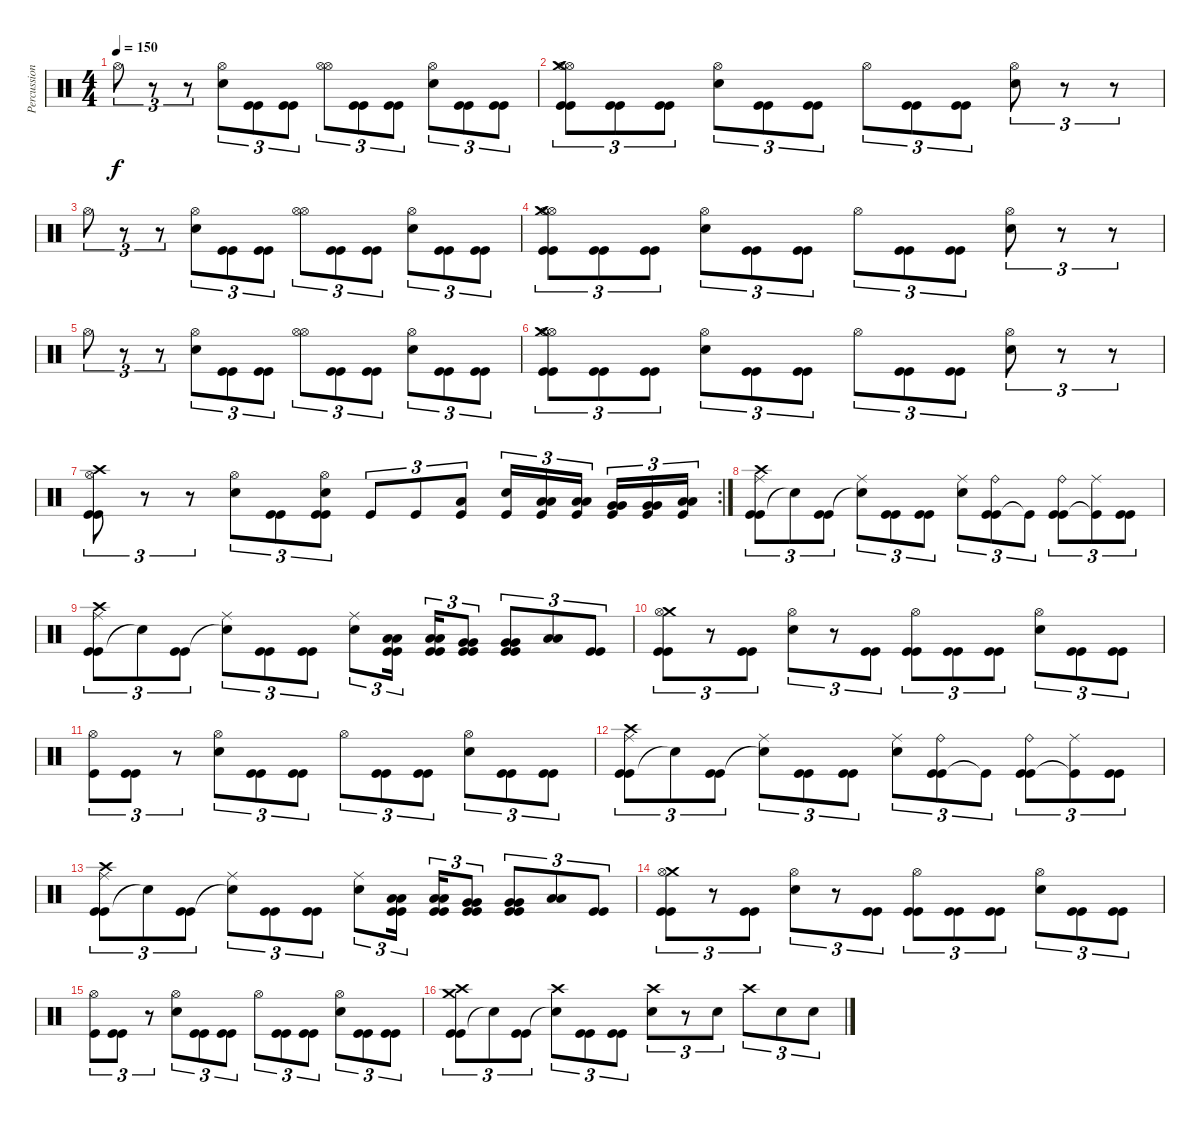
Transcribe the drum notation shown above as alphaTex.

\track ("Percussion" "Percussion") {instrument percussion}
\staff {score}
\articulation defaults
\ts (4 4)
\tempo 150
\clef neutral
\ks c "Hi-Hat (open)".8{tu (3 2) dy f}
r.8{tu (3 2)} r.8{tu (3 2)} ("Snare (hit) 2" "Hi-Hat (open)").8{tu (3 2)} ("Kick (hit)" "Kick (hit)").8{tu (3 2)} ("Kick (hit)" "Kick (hit)").8{tu (3 2)} ("Hi-Hat (open)" "Hi-Hat (open)").8{tu (3 2)} ("Kick (hit)" "Kick (hit)").8{tu (3 2)} ("Kick (hit)" "Kick (hit)").8{tu (3 2)} ("Snare (hit) 2" "Hi-Hat (open)").8{tu (3 2)} ("Kick (hit)" "Kick (hit)").8{tu (3 2)} ("Kick (hit)" "Kick (hit)").8{tu (3 2)} |
("Hi-Hat (open)" "Kick (hit)" "Crash medium (hit)" "Hi-Hat (open)" "Kick (hit)").8{tu (3 2)} ("Kick (hit)" "Kick (hit)").8{tu (3 2)} ("Kick (hit)" "Kick (hit)").8{tu (3 2)} ("Hi-Hat (open)" "Snare (hit) 2").8{tu (3 2)} ("Kick (hit)" "Kick (hit)").8{tu (3 2)} ("Kick (hit)" "Kick (hit)").8{tu (3 2)} "Hi-Hat (open)".8{tu (3 2)} ("Kick (hit)" "Kick (hit)").8{tu (3 2)} ("Kick (hit)" "Kick (hit)").8{tu (3 2)} ("Hi-Hat (open)" "Snare (hit) 2").8{tu (3 2)} r.8{tu (3 2)} r.8{tu (3 2)} |
"Hi-Hat (open)".8{tu (3 2)} r.8{tu (3 2)} r.8{tu (3 2)} ("Snare (hit) 2" "Hi-Hat (open)").8{tu (3 2)} ("Kick (hit)" "Kick (hit)").8{tu (3 2)} ("Kick (hit)" "Kick (hit)").8{tu (3 2)} ("Hi-Hat (open)" "Hi-Hat (open)").8{tu (3 2)} ("Kick (hit)" "Kick (hit)").8{tu (3 2)} ("Kick (hit)" "Kick (hit)").8{tu (3 2)} ("Snare (hit) 2" "Hi-Hat (open)").8{tu (3 2)} ("Kick (hit)" "Kick (hit)").8{tu (3 2)} ("Kick (hit)" "Kick (hit)").8{tu (3 2)} |
("Hi-Hat (open)" "Kick (hit)" "Crash medium (hit)" "Hi-Hat (open)" "Kick (hit)").8{tu (3 2)} ("Kick (hit)" "Kick (hit)").8{tu (3 2)} ("Kick (hit)" "Kick (hit)").8{tu (3 2)} ("Hi-Hat (open)" "Snare (hit) 2").8{tu (3 2)} ("Kick (hit)" "Kick (hit)").8{tu (3 2)} ("Kick (hit)" "Kick (hit)").8{tu (3 2)} "Hi-Hat (open)".8{tu (3 2)} ("Kick (hit)" "Kick (hit)").8{tu (3 2)} ("Kick (hit)" "Kick (hit)").8{tu (3 2)} ("Hi-Hat (open)" "Snare (hit) 2").8{tu (3 2)} r.8{tu (3 2)} r.8{tu (3 2)} |
"Hi-Hat (open)".8{tu (3 2)} r.8{tu (3 2)} r.8{tu (3 2)} ("Snare (hit) 2" "Hi-Hat (open)").8{tu (3 2)} ("Kick (hit)" "Kick (hit)").8{tu (3 2)} ("Kick (hit)" "Kick (hit)").8{tu (3 2)} ("Hi-Hat (open)" "Hi-Hat (open)").8{tu (3 2)} ("Kick (hit)" "Kick (hit)").8{tu (3 2)} ("Kick (hit)" "Kick (hit)").8{tu (3 2)} ("Snare (hit) 2" "Hi-Hat (open)").8{tu (3 2)} ("Kick (hit)" "Kick (hit)").8{tu (3 2)} ("Kick (hit)" "Kick (hit)").8{tu (3 2)} |
("Hi-Hat (open)" "Kick (hit)" "Crash medium (hit)" "Hi-Hat (open)" "Kick (hit)").8{tu (3 2)} ("Kick (hit)" "Kick (hit)").8{tu (3 2)} ("Kick (hit)" "Kick (hit)").8{tu (3 2)} ("Hi-Hat (open)" "Snare (hit) 2").8{tu (3 2)} ("Kick (hit)" "Kick (hit)").8{tu (3 2)} ("Kick (hit)" "Kick (hit)").8{tu (3 2)} "Hi-Hat (open)".8{tu (3 2)} ("Kick (hit)" "Kick (hit)").8{tu (3 2)} ("Kick (hit)" "Kick (hit)").8{tu (3 2)} ("Hi-Hat (open)" "Snare (hit) 2").8{tu (3 2)} r.8{tu (3 2)} r.8{tu (3 2)} |
\rc 2
("Crash high (hit)" "Kick (hit)" "Hi-Hat (open)" "Kick (hit)").8{tu (3 2)} r.8{tu (3 2)} r.8{tu (3 2)} ("Snare (hit) 2" "Hi-Hat (open)").8{tu (3 2)} ("Kick (hit)" "Kick (hit)").8{tu (3 2)} ("Kick (hit)" "Kick (hit)" "Snare (hit) 2" "Hi-Hat (open)").8{tu (3 2)} "Kick (hit)".8{tu (3 2)} "Kick (hit)".8{tu (3 2)} ("Kick (hit)" "Low Tom (hit)").8{tu (3 2)} ("Kick (hit)" "Snare (hit) 2").16{tu (3 2)} ("Kick (hit)" "Low Tom (hit)" "Low Tom (hit)").16{tu (3 2)} ("Kick (hit)" "Low Tom (hit)" "Low Tom (hit)").16{tu (3 2) beam splitsecondary} ("Kick (hit)" "Very Low Tom (hit)" "Very Low Tom (hit)").16{tu (3 2)} ("Kick (hit)" "Very Low Tom (hit)" "Very Low Tom (hit)").16{tu (3 2)} ("Kick (hit)" "Low Floor Tom (hit)" "Low Floor Tom (hit)").16{tu (3 2)} |
("Kick (hit)" "Crash high (hit)" "Kick (hit)" "Ride (middle)").8{tu (3 2)} "Snare (hit)"{t}.8{tu (3 2)} ("Kick (hit)" "Kick (hit)").8{tu (3 2)} ("Snare (hit)"{t} "Ride (middle)").8{tu (3 2)} ("Kick (hit)" "Kick (hit)").8{tu (3 2)} ("Kick (hit)" "Kick (hit)").8{tu (3 2)} ("Snare (hit) 2" "Ride (middle)").8{tu (3 2)} ("Kick (hit)" "Kick (hit)" "Ride (bell)").8{tu (3 2)} "Kick (hit)"{t}.8{tu (3 2)} ("Kick (hit)" "Kick (hit)" "Ride (bell)").8{tu (3 2)} ("Kick (hit)"{t} "Ride (middle)").8{tu (3 2)} ("Kick (hit)" "Kick (hit)").8{tu (3 2)} |
("Kick (hit)" "Crash high (hit)" "Kick (hit)" "Ride (middle)").8{tu (3 2)} "Snare (hit)"{t}.8{tu (3 2)} ("Kick (hit)" "Kick (hit)").8{tu (3 2)} ("Snare (hit)"{t} "Ride (middle)").8{tu (3 2)} ("Kick (hit)" "Kick (hit)").8{tu (3 2)} ("Kick (hit)" "Kick (hit)").8{tu (3 2)} ("Snare (hit) 2" "Ride (middle)").8{tu (3 2)} ("Kick (hit)" "Kick (hit)" "Low Tom (hit)" "Low Tom (hit)").16{tu (3 2) beam splitsecondary} ("Kick (hit)" "Kick (hit)" "Low Tom (hit)" "Low Tom (hit)").16{tu (3 2)} ("Kick (hit)" "Kick (hit)" "Very Low Tom (hit)" "Very Low Tom (hit)").8{tu (3 2)} ("Kick (hit)" "Kick (hit)" "Very Low Tom (hit)" "Very Low Tom (hit)").8{tu (3 2)} ("Low Floor Tom (hit)" "Low Floor Tom (hit)").8{tu (3 2)} ("Kick (hit)" "Kick (hit)").8{tu (3 2)} |
("Crash medium (hit)" "Hi-Hat (open)" "Kick (hit)" "Kick (hit)").8{tu (3 2)} r.8{tu (3 2)} ("Kick (hit)" "Kick (hit)").8{tu (3 2)} ("Hi-Hat (open)" "Snare (hit) 2").8{tu (3 2)} r.8{tu (3 2)} ("Kick (hit)" "Kick (hit)").8{tu (3 2)} ("Hi-Hat (open)" "Kick (hit)" "Kick (hit)").8{tu (3 2)} ("Kick (hit)" "Kick (hit)").8{tu (3 2)} ("Kick (hit)" "Kick (hit)").8{tu (3 2)} ("Hi-Hat (open)" "Snare (hit) 2").8{tu (3 2)} ("Kick (hit)" "Kick (hit)").8{tu (3 2)} ("Kick (hit)" "Kick (hit)").8{tu (3 2)} |
("Kick (hit)" "Hi-Hat (open)").8{tu (3 2)} ("Kick (hit)" "Kick (hit)").8{tu (3 2)} r.8{tu (3 2)} ("Hi-Hat (open)" "Snare (hit) 2").8{tu (3 2)} ("Kick (hit)" "Kick (hit)").8{tu (3 2)} ("Kick (hit)" "Kick (hit)").8{tu (3 2)} "Hi-Hat (open)".8{tu (3 2)} ("Kick (hit)" "Kick (hit)").8{tu (3 2)} ("Kick (hit)" "Kick (hit)").8{tu (3 2)} ("Hi-Hat (open)" "Snare (hit) 2").8{tu (3 2)} ("Kick (hit)" "Kick (hit)").8{tu (3 2)} ("Kick (hit)" "Kick (hit)").8{tu (3 2)} |
("Kick (hit)" "Crash high (hit)" "Kick (hit)" "Ride (middle)").8{tu (3 2)} "Snare (hit)"{t}.8{tu (3 2)} ("Kick (hit)" "Kick (hit)").8{tu (3 2)} ("Snare (hit)"{t} "Ride (middle)").8{tu (3 2)} ("Kick (hit)" "Kick (hit)").8{tu (3 2)} ("Kick (hit)" "Kick (hit)").8{tu (3 2)} ("Snare (hit) 2" "Ride (middle)").8{tu (3 2)} ("Kick (hit)" "Kick (hit)" "Ride (bell)").8{tu (3 2)} "Kick (hit)"{t}.8{tu (3 2)} ("Kick (hit)" "Kick (hit)" "Ride (bell)").8{tu (3 2)} ("Kick (hit)"{t} "Ride (middle)").8{tu (3 2)} ("Kick (hit)" "Kick (hit)").8{tu (3 2)} |
("Kick (hit)" "Crash high (hit)" "Kick (hit)" "Ride (middle)").8{tu (3 2)} "Snare (hit)"{t}.8{tu (3 2)} ("Kick (hit)" "Kick (hit)").8{tu (3 2)} ("Snare (hit)"{t} "Ride (middle)").8{tu (3 2)} ("Kick (hit)" "Kick (hit)").8{tu (3 2)} ("Kick (hit)" "Kick (hit)").8{tu (3 2)} ("Snare (hit) 2" "Ride (middle)").8{tu (3 2)} ("Kick (hit)" "Kick (hit)" "Low Tom (hit)" "Low Tom (hit)").16{tu (3 2) beam splitsecondary} ("Kick (hit)" "Kick (hit)" "Low Tom (hit)" "Low Tom (hit)").16{tu (3 2)} ("Kick (hit)" "Kick (hit)" "Very Low Tom (hit)" "Very Low Tom (hit)").8{tu (3 2)} ("Kick (hit)" "Kick (hit)" "Very Low Tom (hit)" "Very Low Tom (hit)").8{tu (3 2)} ("Low Floor Tom (hit)" "Low Floor Tom (hit)").8{tu (3 2)} ("Kick (hit)" "Kick (hit)").8{tu (3 2)} |
("Crash medium (hit)" "Hi-Hat (open)" "Kick (hit)" "Kick (hit)").8{tu (3 2)} r.8{tu (3 2)} ("Kick (hit)" "Kick (hit)").8{tu (3 2)} ("Hi-Hat (open)" "Snare (hit) 2").8{tu (3 2)} r.8{tu (3 2)} ("Kick (hit)" "Kick (hit)").8{tu (3 2)} ("Hi-Hat (open)" "Kick (hit)" "Kick (hit)").8{tu (3 2)} ("Kick (hit)" "Kick (hit)").8{tu (3 2)} ("Kick (hit)" "Kick (hit)").8{tu (3 2)} ("Hi-Hat (open)" "Snare (hit) 2").8{tu (3 2)} ("Kick (hit)" "Kick (hit)").8{tu (3 2)} ("Kick (hit)" "Kick (hit)").8{tu (3 2)} |
("Kick (hit)" "Hi-Hat (open)").8{tu (3 2)} ("Kick (hit)" "Kick (hit)").8{tu (3 2)} r.8{tu (3 2)} ("Hi-Hat (open)" "Snare (hit) 2").8{tu (3 2)} ("Kick (hit)" "Kick (hit)").8{tu (3 2)} ("Kick (hit)" "Kick (hit)").8{tu (3 2)} "Hi-Hat (open)".8{tu (3 2)} ("Kick (hit)" "Kick (hit)").8{tu (3 2)} ("Kick (hit)" "Kick (hit)").8{tu (3 2)} ("Hi-Hat (open)" "Snare (hit) 2").8{tu (3 2)} ("Kick (hit)" "Kick (hit)").8{tu (3 2)} ("Kick (hit)" "Kick (hit)").8{tu (3 2)} |
("Kick (hit)" "Crash medium (hit)" "Crash high (hit)" "Kick (hit)").8{tu (3 2)} "Snare (hit)"{t}.8{tu (3 2)} ("Kick (hit)" "Kick (hit)").8{tu (3 2)} ("Crash high (hit)" "Snare (hit)"{t}).8{tu (3 2)} ("Kick (hit)" "Kick (hit)").8{tu (3 2)} ("Kick (hit)" "Kick (hit)").8{tu (3 2)} ("Crash high (hit)" "Snare (hit) 2").8{tu (3 2)} r.8{tu (3 2)} "Snare (hit) 2".8{tu (3 2)} "Crash high (hit)".8{tu (3 2)} "Snare (hit) 2".8{tu (3 2)} "Snare (hit) 2".8{tu (3 2)}
